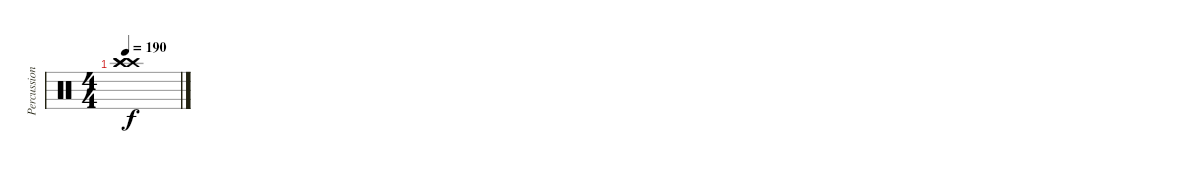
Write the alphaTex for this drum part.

\track ("Percussion" "Percussion") {instrument percussion}
\staff {score}
\articulation defaults
\ts (4 4)
\tempo 190
\clef neutral
\ks c
("Crash high (hit)" "Crash high (hit)" "Crash high (hit)").1{dy f}
